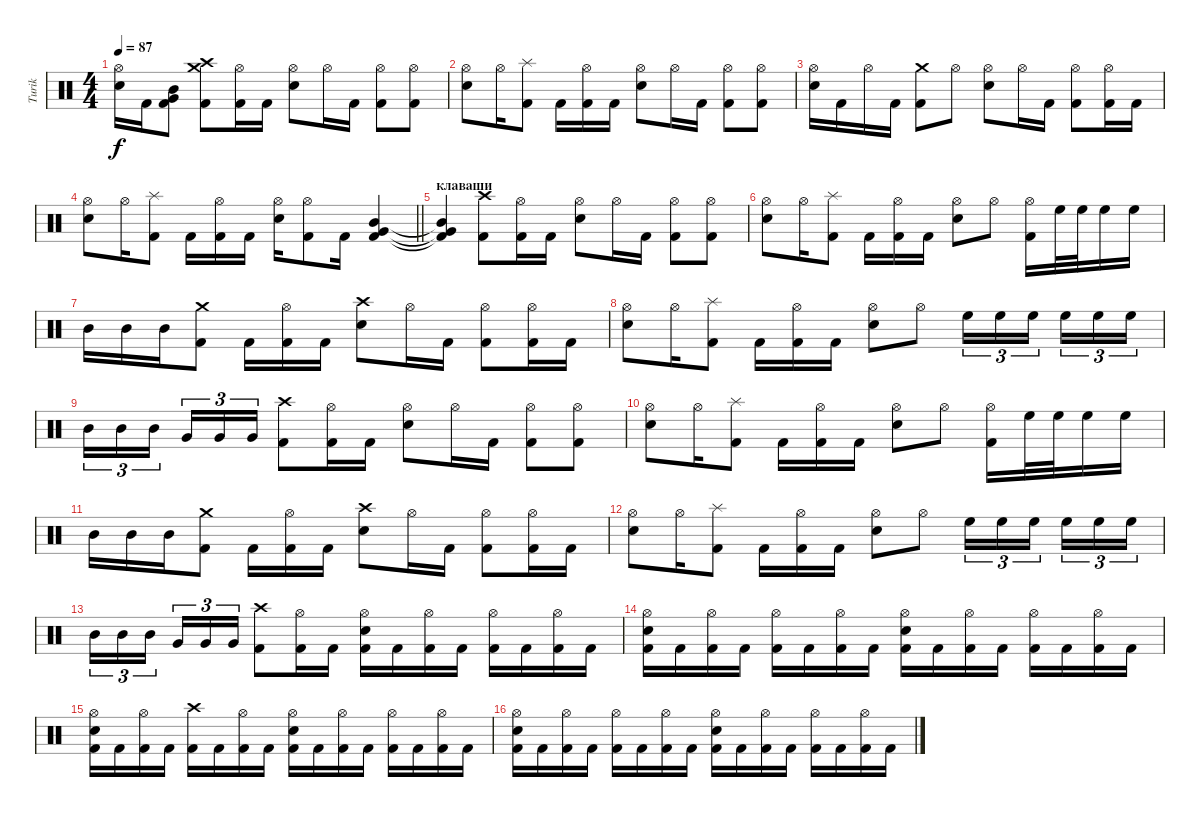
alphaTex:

\track ("Turik" "Turik") {instrument percussion}
\staff {score}
\articulation defaults
\ts (4 4)
\tempo 87
\clef neutral
\ks c
("Hi-Hat (open)" "Snare (hit) 2").16{dy f} "Kick (hit) 2".16 ("Mid Tom (hit)" "Very Low Tom (hit)" "Kick (hit) 2").8 ("Crash high (hit)" "Crash medium (hit)" "Kick (hit) 2").8 ("Hi-Hat (open)" "Kick (hit) 2").16 "Kick (hit) 2".16 ("Hi-Hat (open)" "Snare (hit) 2").8 "Hi-Hat (open)".16 "Kick (hit) 2".16 ("Hi-Hat (open)" "Kick (hit) 2").8 ("Hi-Hat (open)" "Kick (hit) 2").8 |
("Hi-Hat (open)" "Snare (hit) 2").8 "Hi-Hat (open)".16 ("Splash (hit)" "Kick (hit) 2").8 "Kick (hit) 2".16 ("Hi-Hat (open)" "Kick (hit) 2").16 "Kick (hit) 2".16 ("Hi-Hat (open)" "Snare (hit) 2").8 "Hi-Hat (open)".16 "Kick (hit) 2".16 ("Hi-Hat (open)" "Kick (hit) 2").8 ("Hi-Hat (open)" "Kick (hit) 2").8 |
("Hi-Hat (open)" "Snare (hit) 2").16 "Kick (hit) 2".16 "Hi-Hat (open)".16 "Kick (hit) 2".16 ("Crash medium (hit)" "Kick (hit) 2").8 "Hi-Hat (open)".8 ("Hi-Hat (open)" "Snare (hit) 2").8 "Hi-Hat (open)".16 "Kick (hit) 2".16 ("Hi-Hat (open)" "Kick (hit) 2").8 ("Hi-Hat (open)" "Kick (hit) 2").16 "Kick (hit) 2".16 |
\barLineRight lightlight
("Hi-Hat (open)" "Snare (hit) 2").8 "Hi-Hat (open)".16 ("Splash (hit)" "Kick (hit) 2").8 "Kick (hit) 2".16 ("Hi-Hat (open)" "Kick (hit) 2").16 "Kick (hit) 2".16 ("Hi-Hat (open)" "Snare (hit) 2").16 ("Hi-Hat (open)" "Kick (hit) 2").8 "Kick (hit) 2".16 ("Mid Tom (hit)" "Very Low Tom (hit)" "Kick (hit) 2").4 |
\section ("" "клаваши")
("Mid Tom (hit)"{t} "Very Low Tom (hit)"{t} "Kick (hit) 2"{t}).4 ("Crash high (hit)" "Kick (hit) 2").8 ("Hi-Hat (open)" "Kick (hit) 2").16 "Kick (hit) 2".16 ("Hi-Hat (open)" "Snare (hit) 2").8 "Hi-Hat (open)".16 "Kick (hit) 2".16 ("Hi-Hat (open)" "Kick (hit) 2").8 ("Hi-Hat (open)" "Kick (hit) 2").8 |
("Hi-Hat (open)" "Snare (hit) 2").8 "Hi-Hat (open)".16 ("Splash (hit)" "Kick (hit) 2").8 "Kick (hit) 2".16 ("Hi-Hat (open)" "Kick (hit) 2").16 "Kick (hit) 2".16 ("Hi-Hat (open)" "Snare (hit) 2").8 "Hi-Hat (open)".8 ("Hi-Hat (open)" "Kick (hit) 2").16 "High Floor Tom (hit)".32 "High Floor Tom (hit)".32 "High Floor Tom (hit)".16 "High Floor Tom (hit)".16 |
"Mid Tom (hit)".16 "Mid Tom (hit)".16 "Mid Tom (hit)".16 ("Crash medium (hit)" "Kick (hit) 2").8 "Kick (hit) 2".16 ("Hi-Hat (open)" "Kick (hit) 2").16 "Kick (hit) 2".16 ("Crash high (hit)" "Snare (hit) 2").8 "Hi-Hat (open)".16 "Kick (hit) 2".16 ("Hi-Hat (open)" "Kick (hit) 2").8 ("Hi-Hat (open)" "Kick (hit) 2").16 "Kick (hit) 2".16 |
("Hi-Hat (open)" "Snare (hit) 2").8 "Hi-Hat (open)".16 ("Splash (hit)" "Kick (hit) 2").8 "Kick (hit) 2".16 ("Hi-Hat (open)" "Kick (hit) 2").16 "Kick (hit) 2".16 ("Hi-Hat (open)" "Snare (hit) 2").8 "Hi-Hat (open)".8 "High Floor Tom (hit)".16{tu (3 2)} "High Floor Tom (hit)".16{tu (3 2)} "High Floor Tom (hit)".16{tu (3 2) beam splitsecondary} "High Floor Tom (hit)".16{tu (3 2)} "High Floor Tom (hit)".16{tu (3 2)} "High Floor Tom (hit)".16{tu (3 2)} |
"Mid Tom (hit)".16{tu (3 2)} "Mid Tom (hit)".16{tu (3 2)} "Mid Tom (hit)".16{tu (3 2) beam splitsecondary} "Very Low Tom (hit)".16{tu (3 2)} "Very Low Tom (hit)".16{tu (3 2)} "Very Low Tom (hit)".16{tu (3 2)} ("Crash high (hit)" "Kick (hit) 2").8 ("Hi-Hat (open)" "Kick (hit) 2").16 "Kick (hit) 2".16 ("Hi-Hat (open)" "Snare (hit) 2").8 "Hi-Hat (open)".16 "Kick (hit) 2".16 ("Hi-Hat (open)" "Kick (hit) 2").8 ("Hi-Hat (open)" "Kick (hit) 2").8 |
("Hi-Hat (open)" "Snare (hit) 2").8 "Hi-Hat (open)".16 ("Splash (hit)" "Kick (hit) 2").8 "Kick (hit) 2".16 ("Hi-Hat (open)" "Kick (hit) 2").16 "Kick (hit) 2".16 ("Hi-Hat (open)" "Snare (hit) 2").8 "Hi-Hat (open)".8 ("Hi-Hat (open)" "Kick (hit) 2").16 "High Floor Tom (hit)".32 "High Floor Tom (hit)".32 "High Floor Tom (hit)".16 "High Floor Tom (hit)".16 |
"Mid Tom (hit)".16 "Mid Tom (hit)".16 "Mid Tom (hit)".16 ("Crash medium (hit)" "Kick (hit) 2").8 "Kick (hit) 2".16 ("Hi-Hat (open)" "Kick (hit) 2").16 "Kick (hit) 2".16 ("Crash high (hit)" "Snare (hit) 2").8 "Hi-Hat (open)".16 "Kick (hit) 2".16 ("Hi-Hat (open)" "Kick (hit) 2").8 ("Hi-Hat (open)" "Kick (hit) 2").16 "Kick (hit) 2".16 |
("Hi-Hat (open)" "Snare (hit) 2").8 "Hi-Hat (open)".16 ("Splash (hit)" "Kick (hit) 2").8 "Kick (hit) 2".16 ("Hi-Hat (open)" "Kick (hit) 2").16 "Kick (hit) 2".16 ("Hi-Hat (open)" "Snare (hit) 2").8 "Hi-Hat (open)".8 "High Floor Tom (hit)".16{tu (3 2)} "High Floor Tom (hit)".16{tu (3 2)} "High Floor Tom (hit)".16{tu (3 2) beam splitsecondary} "High Floor Tom (hit)".16{tu (3 2)} "High Floor Tom (hit)".16{tu (3 2)} "High Floor Tom (hit)".16{tu (3 2)} |
"Mid Tom (hit)".16{tu (3 2)} "Mid Tom (hit)".16{tu (3 2)} "Mid Tom (hit)".16{tu (3 2) beam splitsecondary} "Very Low Tom (hit)".16{tu (3 2)} "Very Low Tom (hit)".16{tu (3 2)} "Very Low Tom (hit)".16{tu (3 2)} ("Crash high (hit)" "Kick (hit) 2").8 ("Hi-Hat (open)" "Kick (hit) 2").16 "Kick (hit) 2".16 ("Hi-Hat (open)" "Snare (hit) 2" "Kick (hit) 2").16 "Kick (hit) 2".16 ("Hi-Hat (open)" "Kick (hit) 2").16 "Kick (hit) 2".16 ("Hi-Hat (open)" "Kick (hit) 2").16 "Kick (hit) 2".16 ("Hi-Hat (open)" "Kick (hit) 2").16 "Kick (hit) 2".16 |
("Hi-Hat (open)" "Snare (hit) 2" "Kick (hit) 2").16 "Kick (hit) 2".16 ("Hi-Hat (open)" "Kick (hit) 2").16 "Kick (hit) 2".16 ("Hi-Hat (open)" "Kick (hit) 2").16 "Kick (hit) 2".16 ("Hi-Hat (open)" "Kick (hit) 2").16 "Kick (hit) 2".16 ("Hi-Hat (open)" "Snare (hit) 2" "Kick (hit) 2").16 "Kick (hit) 2".16 ("Hi-Hat (open)" "Kick (hit) 2").16 "Kick (hit) 2".16 ("Hi-Hat (open)" "Kick (hit) 2").16 "Kick (hit) 2".16 ("Hi-Hat (open)" "Kick (hit) 2").16 "Kick (hit) 2".16 |
("Hi-Hat (open)" "Snare (hit) 2" "Kick (hit) 2").16 "Kick (hit) 2".16 ("Hi-Hat (open)" "Kick (hit) 2").16 "Kick (hit) 2".16 ("Crash high (hit)" "Kick (hit) 2").16 "Kick (hit) 2".16 ("Hi-Hat (open)" "Kick (hit) 2").16 "Kick (hit) 2".16 ("Hi-Hat (open)" "Snare (hit) 2" "Kick (hit) 2").16 "Kick (hit) 2".16 ("Hi-Hat (open)" "Kick (hit) 2").16 "Kick (hit) 2".16 ("Hi-Hat (open)" "Kick (hit) 2").16 "Kick (hit) 2".16 ("Hi-Hat (open)" "Kick (hit) 2").16 "Kick (hit) 2".16 |
("Hi-Hat (open)" "Snare (hit) 2" "Kick (hit) 2").16 "Kick (hit) 2".16 ("Hi-Hat (open)" "Kick (hit) 2").16 "Kick (hit) 2".16 ("Hi-Hat (open)" "Kick (hit) 2").16 "Kick (hit) 2".16 ("Hi-Hat (open)" "Kick (hit) 2").16 "Kick (hit) 2".16 ("Hi-Hat (open)" "Snare (hit) 2" "Kick (hit) 2").16 "Kick (hit) 2".16 ("Hi-Hat (open)" "Kick (hit) 2").16 "Kick (hit) 2".16 ("Hi-Hat (open)" "Kick (hit) 2").16 "Kick (hit) 2".16 ("Hi-Hat (open)" "Kick (hit) 2").16 "Kick (hit) 2".16
